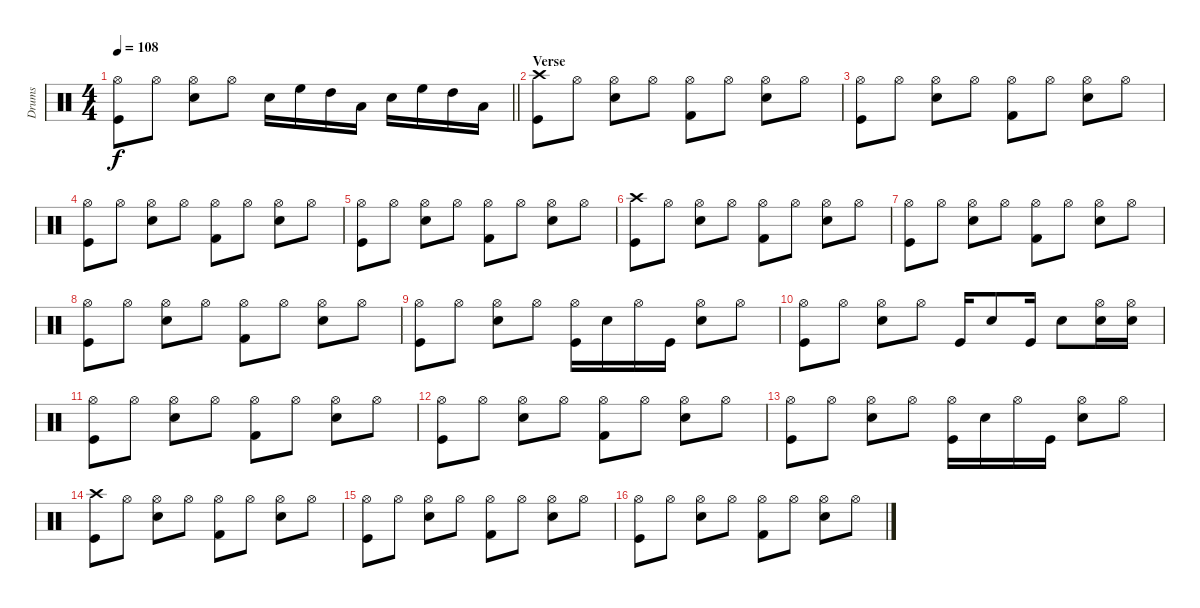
\track ("Drums" "Drums") {instrument percussion}
\staff {score}
\articulation defaults
\ts (4 4)
\tempo 108
\clef neutral
\barLineRight lightlight
\ks c
("Kick (hit)" "Hi-Hat (open)").8{dy f} "Hi-Hat (open)".8 ("Snare (hit) 2" "Hi-Hat (open)").8 "Hi-Hat (open)".8 "Snare (hit) 2".16 "High Floor Tom (hit)".16 "High Tom (hit)".16 "Low Floor Tom (hit)".16 "Snare (hit) 2".16 "High Floor Tom (hit)".16 "High Tom (hit)".16 "Low Floor Tom (hit)".16 |
\section ("" "Verse")
("Crash high (hit)" "Kick (hit)").8 "Hi-Hat (open)".8 ("Hi-Hat (open)" "Snare (hit) 2").8 "Hi-Hat (open)".8 ("Hi-Hat (open)" "Kick (hit) 2").8 "Hi-Hat (open)".8 ("Hi-Hat (open)" "Snare (hit) 2").8 "Hi-Hat (open)".8 |
("Hi-Hat (open)" "Kick (hit)").8 "Hi-Hat (open)".8 ("Hi-Hat (open)" "Snare (hit) 2").8 "Hi-Hat (open)".8 ("Hi-Hat (open)" "Kick (hit) 2").8 "Hi-Hat (open)".8 ("Hi-Hat (open)" "Snare (hit) 2").8 "Hi-Hat (open)".8 |
("Hi-Hat (open)" "Kick (hit)").8 "Hi-Hat (open)".8 ("Hi-Hat (open)" "Snare (hit) 2").8 "Hi-Hat (open)".8 ("Hi-Hat (open)" "Kick (hit) 2").8 "Hi-Hat (open)".8 ("Hi-Hat (open)" "Snare (hit) 2").8 "Hi-Hat (open)".8 |
("Hi-Hat (open)" "Kick (hit)").8 "Hi-Hat (open)".8 ("Hi-Hat (open)" "Snare (hit) 2").8 "Hi-Hat (open)".8 ("Hi-Hat (open)" "Kick (hit) 2").8 "Hi-Hat (open)".8 ("Hi-Hat (open)" "Snare (hit) 2").8 "Hi-Hat (open)".8 |
("Crash high (hit)" "Kick (hit)").8 "Hi-Hat (open)".8 ("Hi-Hat (open)" "Snare (hit) 2").8 "Hi-Hat (open)".8 ("Hi-Hat (open)" "Kick (hit) 2").8 "Hi-Hat (open)".8 ("Hi-Hat (open)" "Snare (hit) 2").8 "Hi-Hat (open)".8 |
("Hi-Hat (open)" "Kick (hit)").8 "Hi-Hat (open)".8 ("Hi-Hat (open)" "Snare (hit) 2").8 "Hi-Hat (open)".8 ("Hi-Hat (open)" "Kick (hit) 2").8 "Hi-Hat (open)".8 ("Hi-Hat (open)" "Snare (hit) 2").8 "Hi-Hat (open)".8 |
("Hi-Hat (open)" "Kick (hit)").8 "Hi-Hat (open)".8 ("Hi-Hat (open)" "Snare (hit) 2").8 "Hi-Hat (open)".8 ("Hi-Hat (open)" "Kick (hit) 2").8 "Hi-Hat (open)".8 ("Hi-Hat (open)" "Snare (hit) 2").8 "Hi-Hat (open)".8 |
("Kick (hit)" "Hi-Hat (open)").8 "Hi-Hat (open)".8 ("Snare (hit) 2" "Hi-Hat (open)").8 "Hi-Hat (open)".8 ("Hi-Hat (open)" "Kick (hit)").16 "Snare (hit) 2".16 "Hi-Hat (open)".16 "Kick (hit)".16 ("Snare (hit) 2" "Hi-Hat (open)").8 "Hi-Hat (open)".8 |
("Kick (hit)" "Hi-Hat (open)").8 "Hi-Hat (open)".8 ("Snare (hit) 2" "Hi-Hat (open)").8 "Hi-Hat (open)".8 "Kick (hit)".16 "Snare (hit) 2".8 "Kick (hit)".16 "Snare (hit) 2".8 ("Hi-Hat (open)" "Snare (hit) 2").16 ("Hi-Hat (open)" "Snare (hit) 2").16 |
("Hi-Hat (open)" "Kick (hit)").8 "Hi-Hat (open)".8 ("Hi-Hat (open)" "Snare (hit) 2").8 "Hi-Hat (open)".8 ("Hi-Hat (open)" "Kick (hit) 2").8 "Hi-Hat (open)".8 ("Hi-Hat (open)" "Snare (hit) 2").8 "Hi-Hat (open)".8 |
("Hi-Hat (open)" "Kick (hit)").8 "Hi-Hat (open)".8 ("Hi-Hat (open)" "Snare (hit) 2").8 "Hi-Hat (open)".8 ("Hi-Hat (open)" "Kick (hit) 2").8 "Hi-Hat (open)".8 ("Hi-Hat (open)" "Snare (hit) 2").8 "Hi-Hat (open)".8 |
("Kick (hit)" "Hi-Hat (open)").8 "Hi-Hat (open)".8 ("Snare (hit) 2" "Hi-Hat (open)").8 "Hi-Hat (open)".8 ("Hi-Hat (open)" "Kick (hit)").16 "Snare (hit) 2".16 "Hi-Hat (open)".16 "Kick (hit)".16 ("Snare (hit) 2" "Hi-Hat (open)").8 "Hi-Hat (open)".8 |
("Crash high (hit)" "Kick (hit)").8 "Hi-Hat (open)".8 ("Hi-Hat (open)" "Snare (hit) 2").8 "Hi-Hat (open)".8 ("Hi-Hat (open)" "Kick (hit) 2").8 "Hi-Hat (open)".8 ("Hi-Hat (open)" "Snare (hit) 2").8 "Hi-Hat (open)".8 |
("Hi-Hat (open)" "Kick (hit)").8 "Hi-Hat (open)".8 ("Hi-Hat (open)" "Snare (hit) 2").8 "Hi-Hat (open)".8 ("Hi-Hat (open)" "Kick (hit) 2").8 "Hi-Hat (open)".8 ("Hi-Hat (open)" "Snare (hit) 2").8 "Hi-Hat (open)".8 |
("Hi-Hat (open)" "Kick (hit)").8 "Hi-Hat (open)".8 ("Hi-Hat (open)" "Snare (hit) 2").8 "Hi-Hat (open)".8 ("Hi-Hat (open)" "Kick (hit) 2").8 "Hi-Hat (open)".8 ("Hi-Hat (open)" "Snare (hit) 2").8 "Hi-Hat (open)".8
